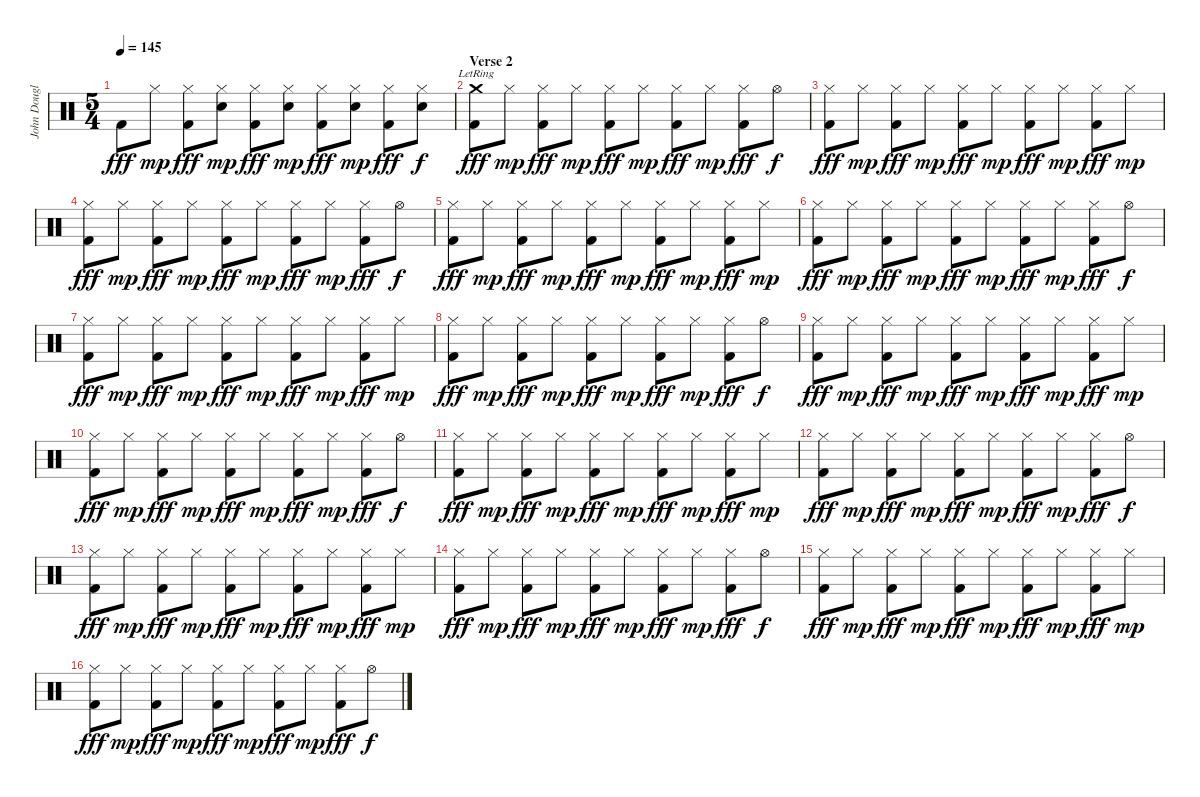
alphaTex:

\track ("John Douglas (Drums)" "John Dougl") {instrument percussion}
\staff {score}
\articulation defaults
\ts (5 4)
\tempo 145
\clef neutral
\ks c "Kick (hit) 2".8{dy fff} "Hi-Hat (closed)".8{dy mp}
("Hi-Hat (closed)" "Kick (hit) 2").8{dy fff} ("Hi-Hat (closed)" "Snare (hit) 2").8{dy mp} ("Hi-Hat (closed)" "Kick (hit) 2").8{dy fff} ("Hi-Hat (closed)" "Snare (hit) 2").8{dy mp} ("Hi-Hat (closed)" "Kick (hit) 2").8{dy fff} ("Hi-Hat (closed)" "Snare (hit) 2").8{dy mp} ("Hi-Hat (closed)" "Kick (hit) 2").8{dy fff} ("Hi-Hat (closed)" "Snare (hit) 2").8{dy f} |
\section ("" "Verse 2")
("Crash medium (hit)"{lr} "Kick (hit) 2").8{dy fff} "Hi-Hat (closed)".8{dy mp} ("Hi-Hat (closed)" "Kick (hit) 2").8{dy fff} "Hi-Hat (closed)".8{dy mp} ("Hi-Hat (closed)" "Kick (hit) 2").8{dy fff} "Hi-Hat (closed)".8{dy mp} ("Hi-Hat (closed)" "Kick (hit) 2").8{dy fff} "Hi-Hat (closed)".8{dy mp} ("Hi-Hat (closed)" "Kick (hit) 2").8{dy fff} "Hi-Hat (open)".8{dy f} |
("Hi-Hat (closed)" "Kick (hit) 2").8{dy fff} "Hi-Hat (closed)".8{dy mp} ("Hi-Hat (closed)" "Kick (hit) 2").8{dy fff} "Hi-Hat (closed)".8{dy mp} ("Hi-Hat (closed)" "Kick (hit) 2").8{dy fff} "Hi-Hat (closed)".8{dy mp} ("Hi-Hat (closed)" "Kick (hit) 2").8{dy fff} "Hi-Hat (closed)".8{dy mp} ("Hi-Hat (closed)" "Kick (hit) 2").8{dy fff} "Hi-Hat (closed)".8{dy mp} |
("Hi-Hat (closed)" "Kick (hit) 2").8{dy fff} "Hi-Hat (closed)".8{dy mp} ("Hi-Hat (closed)" "Kick (hit) 2").8{dy fff} "Hi-Hat (closed)".8{dy mp} ("Hi-Hat (closed)" "Kick (hit) 2").8{dy fff} "Hi-Hat (closed)".8{dy mp} ("Hi-Hat (closed)" "Kick (hit) 2").8{dy fff} "Hi-Hat (closed)".8{dy mp} ("Hi-Hat (closed)" "Kick (hit) 2").8{dy fff} "Hi-Hat (open)".8{dy f} |
("Hi-Hat (closed)" "Kick (hit) 2").8{dy fff} "Hi-Hat (closed)".8{dy mp} ("Hi-Hat (closed)" "Kick (hit) 2").8{dy fff} "Hi-Hat (closed)".8{dy mp} ("Hi-Hat (closed)" "Kick (hit) 2").8{dy fff} "Hi-Hat (closed)".8{dy mp} ("Hi-Hat (closed)" "Kick (hit) 2").8{dy fff} "Hi-Hat (closed)".8{dy mp} ("Hi-Hat (closed)" "Kick (hit) 2").8{dy fff} "Hi-Hat (closed)".8{dy mp} |
("Hi-Hat (closed)" "Kick (hit) 2").8{dy fff} "Hi-Hat (closed)".8{dy mp} ("Hi-Hat (closed)" "Kick (hit) 2").8{dy fff} "Hi-Hat (closed)".8{dy mp} ("Hi-Hat (closed)" "Kick (hit) 2").8{dy fff} "Hi-Hat (closed)".8{dy mp} ("Hi-Hat (closed)" "Kick (hit) 2").8{dy fff} "Hi-Hat (closed)".8{dy mp} ("Hi-Hat (closed)" "Kick (hit) 2").8{dy fff} "Hi-Hat (open)".8{dy f} |
("Hi-Hat (closed)" "Kick (hit) 2").8{dy fff} "Hi-Hat (closed)".8{dy mp} ("Hi-Hat (closed)" "Kick (hit) 2").8{dy fff} "Hi-Hat (closed)".8{dy mp} ("Hi-Hat (closed)" "Kick (hit) 2").8{dy fff} "Hi-Hat (closed)".8{dy mp} ("Hi-Hat (closed)" "Kick (hit) 2").8{dy fff} "Hi-Hat (closed)".8{dy mp} ("Hi-Hat (closed)" "Kick (hit) 2").8{dy fff} "Hi-Hat (closed)".8{dy mp} |
("Hi-Hat (closed)" "Kick (hit) 2").8{dy fff} "Hi-Hat (closed)".8{dy mp} ("Hi-Hat (closed)" "Kick (hit) 2").8{dy fff} "Hi-Hat (closed)".8{dy mp} ("Hi-Hat (closed)" "Kick (hit) 2").8{dy fff} "Hi-Hat (closed)".8{dy mp} ("Hi-Hat (closed)" "Kick (hit) 2").8{dy fff} "Hi-Hat (closed)".8{dy mp} ("Hi-Hat (closed)" "Kick (hit) 2").8{dy fff} "Hi-Hat (open)".8{dy f} |
("Hi-Hat (closed)" "Kick (hit) 2").8{dy fff} "Hi-Hat (closed)".8{dy mp} ("Hi-Hat (closed)" "Kick (hit) 2").8{dy fff} "Hi-Hat (closed)".8{dy mp} ("Hi-Hat (closed)" "Kick (hit) 2").8{dy fff} "Hi-Hat (closed)".8{dy mp} ("Hi-Hat (closed)" "Kick (hit) 2").8{dy fff} "Hi-Hat (closed)".8{dy mp} ("Hi-Hat (closed)" "Kick (hit) 2").8{dy fff} "Hi-Hat (closed)".8{dy mp} |
("Hi-Hat (closed)" "Kick (hit) 2").8{dy fff} "Hi-Hat (closed)".8{dy mp} ("Hi-Hat (closed)" "Kick (hit) 2").8{dy fff} "Hi-Hat (closed)".8{dy mp} ("Hi-Hat (closed)" "Kick (hit) 2").8{dy fff} "Hi-Hat (closed)".8{dy mp} ("Hi-Hat (closed)" "Kick (hit) 2").8{dy fff} "Hi-Hat (closed)".8{dy mp} ("Hi-Hat (closed)" "Kick (hit) 2").8{dy fff} "Hi-Hat (open)".8{dy f} |
("Hi-Hat (closed)" "Kick (hit) 2").8{dy fff} "Hi-Hat (closed)".8{dy mp} ("Hi-Hat (closed)" "Kick (hit) 2").8{dy fff} "Hi-Hat (closed)".8{dy mp} ("Hi-Hat (closed)" "Kick (hit) 2").8{dy fff} "Hi-Hat (closed)".8{dy mp} ("Hi-Hat (closed)" "Kick (hit) 2").8{dy fff} "Hi-Hat (closed)".8{dy mp} ("Hi-Hat (closed)" "Kick (hit) 2").8{dy fff} "Hi-Hat (closed)".8{dy mp} |
("Hi-Hat (closed)" "Kick (hit) 2").8{dy fff} "Hi-Hat (closed)".8{dy mp} ("Hi-Hat (closed)" "Kick (hit) 2").8{dy fff} "Hi-Hat (closed)".8{dy mp} ("Hi-Hat (closed)" "Kick (hit) 2").8{dy fff} "Hi-Hat (closed)".8{dy mp} ("Hi-Hat (closed)" "Kick (hit) 2").8{dy fff} "Hi-Hat (closed)".8{dy mp} ("Hi-Hat (closed)" "Kick (hit) 2").8{dy fff} "Hi-Hat (open)".8{dy f} |
("Hi-Hat (closed)" "Kick (hit) 2").8{dy fff} "Hi-Hat (closed)".8{dy mp} ("Hi-Hat (closed)" "Kick (hit) 2").8{dy fff} "Hi-Hat (closed)".8{dy mp} ("Hi-Hat (closed)" "Kick (hit) 2").8{dy fff} "Hi-Hat (closed)".8{dy mp} ("Hi-Hat (closed)" "Kick (hit) 2").8{dy fff} "Hi-Hat (closed)".8{dy mp} ("Hi-Hat (closed)" "Kick (hit) 2").8{dy fff} "Hi-Hat (closed)".8{dy mp} |
("Hi-Hat (closed)" "Kick (hit) 2").8{dy fff} "Hi-Hat (closed)".8{dy mp} ("Hi-Hat (closed)" "Kick (hit) 2").8{dy fff} "Hi-Hat (closed)".8{dy mp} ("Hi-Hat (closed)" "Kick (hit) 2").8{dy fff} "Hi-Hat (closed)".8{dy mp} ("Hi-Hat (closed)" "Kick (hit) 2").8{dy fff} "Hi-Hat (closed)".8{dy mp} ("Hi-Hat (closed)" "Kick (hit) 2").8{dy fff} "Hi-Hat (open)".8{dy f} |
("Hi-Hat (closed)" "Kick (hit) 2").8{dy fff} "Hi-Hat (closed)".8{dy mp} ("Hi-Hat (closed)" "Kick (hit) 2").8{dy fff} "Hi-Hat (closed)".8{dy mp} ("Hi-Hat (closed)" "Kick (hit) 2").8{dy fff} "Hi-Hat (closed)".8{dy mp} ("Hi-Hat (closed)" "Kick (hit) 2").8{dy fff} "Hi-Hat (closed)".8{dy mp} ("Hi-Hat (closed)" "Kick (hit) 2").8{dy fff} "Hi-Hat (closed)".8{dy mp} |
("Hi-Hat (closed)" "Kick (hit) 2").8{dy fff} "Hi-Hat (closed)".8{dy mp} ("Hi-Hat (closed)" "Kick (hit) 2").8{dy fff} "Hi-Hat (closed)".8{dy mp} ("Hi-Hat (closed)" "Kick (hit) 2").8{dy fff} "Hi-Hat (closed)".8{dy mp} ("Hi-Hat (closed)" "Kick (hit) 2").8{dy fff} "Hi-Hat (closed)".8{dy mp} ("Hi-Hat (closed)" "Kick (hit) 2").8{dy fff} "Hi-Hat (open)".8{dy f}
